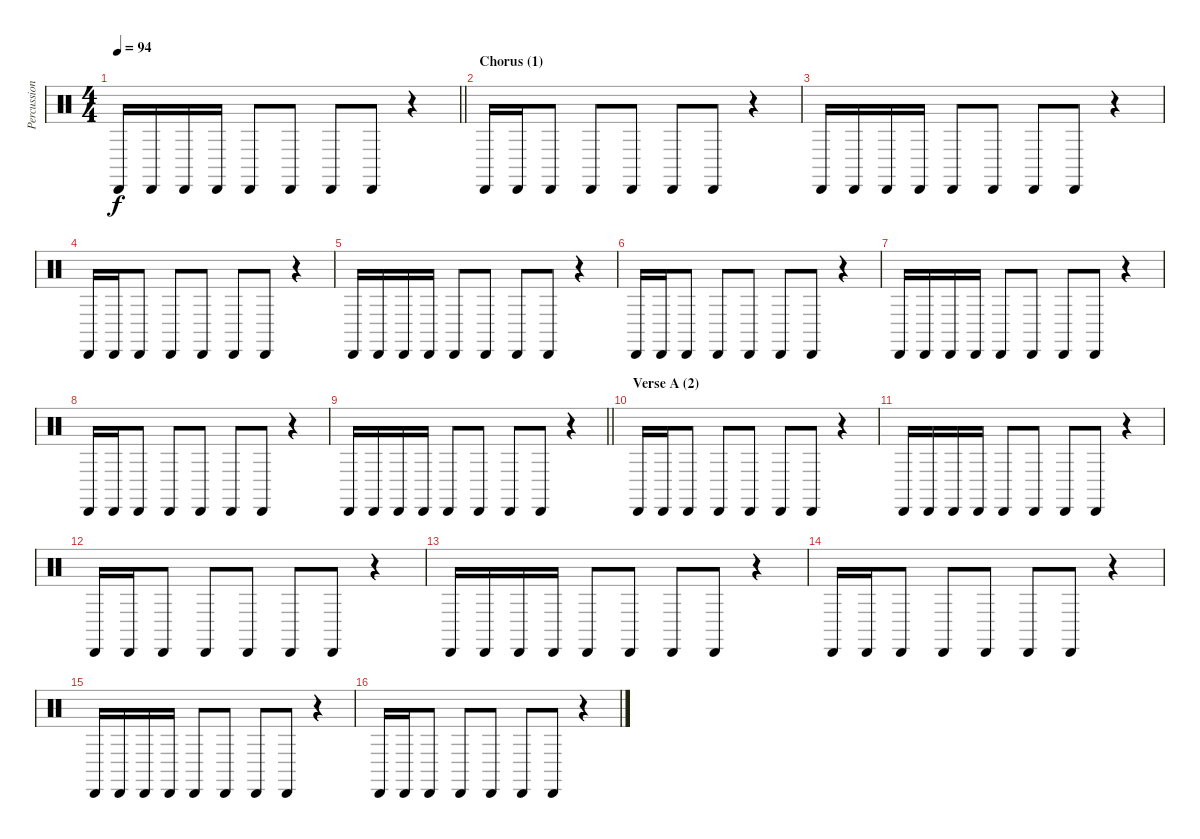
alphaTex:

\track ("Percussion" "Percussion") {instrument percussion}
\staff {score}
\articulation defaults
\ts (4 4)
\tempo 94
\clef neutral
\barLineRight lightlight
\ks aminor "Cabasa (hit)".16{dy f} "Cabasa (hit)".16 "Cabasa (hit)".16 "Cabasa (hit)".16 "Cabasa (hit)".8 "Cabasa (hit)".8 "Cabasa (hit)".8 "Cabasa (hit)".8
r.4 |
\section ("" "Chorus (1)")
"Cabasa (hit)".16 "Cabasa (hit)".16 "Cabasa (hit)".8 "Cabasa (hit)".8 "Cabasa (hit)".8 "Cabasa (hit)".8 "Cabasa (hit)".8 r.4 |
"Cabasa (hit)".16 "Cabasa (hit)".16 "Cabasa (hit)".16 "Cabasa (hit)".16 "Cabasa (hit)".8 "Cabasa (hit)".8 "Cabasa (hit)".8 "Cabasa (hit)".8 r.4 |
"Cabasa (hit)".16 "Cabasa (hit)".16 "Cabasa (hit)".8 "Cabasa (hit)".8 "Cabasa (hit)".8 "Cabasa (hit)".8 "Cabasa (hit)".8 r.4 |
"Cabasa (hit)".16 "Cabasa (hit)".16 "Cabasa (hit)".16 "Cabasa (hit)".16 "Cabasa (hit)".8 "Cabasa (hit)".8 "Cabasa (hit)".8 "Cabasa (hit)".8 r.4 |
"Cabasa (hit)".16 "Cabasa (hit)".16 "Cabasa (hit)".8 "Cabasa (hit)".8 "Cabasa (hit)".8 "Cabasa (hit)".8 "Cabasa (hit)".8 r.4 |
"Cabasa (hit)".16 "Cabasa (hit)".16 "Cabasa (hit)".16 "Cabasa (hit)".16 "Cabasa (hit)".8 "Cabasa (hit)".8 "Cabasa (hit)".8 "Cabasa (hit)".8 r.4 |
"Cabasa (hit)".16 "Cabasa (hit)".16 "Cabasa (hit)".8 "Cabasa (hit)".8 "Cabasa (hit)".8 "Cabasa (hit)".8 "Cabasa (hit)".8 r.4 |
\barLineRight lightlight "Cabasa (hit)".16 "Cabasa (hit)".16 "Cabasa (hit)".16 "Cabasa (hit)".16 "Cabasa (hit)".8 "Cabasa (hit)".8 "Cabasa (hit)".8 "Cabasa (hit)".8
r.4 |
\section ("" "Verse A (2)")
"Cabasa (hit)".16 "Cabasa (hit)".16 "Cabasa (hit)".8 "Cabasa (hit)".8 "Cabasa (hit)".8 "Cabasa (hit)".8 "Cabasa (hit)".8 r.4 |
"Cabasa (hit)".16 "Cabasa (hit)".16 "Cabasa (hit)".16 "Cabasa (hit)".16 "Cabasa (hit)".8 "Cabasa (hit)".8 "Cabasa (hit)".8 "Cabasa (hit)".8 r.4 |
"Cabasa (hit)".16 "Cabasa (hit)".16 "Cabasa (hit)".8 "Cabasa (hit)".8 "Cabasa (hit)".8 "Cabasa (hit)".8 "Cabasa (hit)".8 r.4 |
"Cabasa (hit)".16 "Cabasa (hit)".16 "Cabasa (hit)".16 "Cabasa (hit)".16 "Cabasa (hit)".8 "Cabasa (hit)".8 "Cabasa (hit)".8 "Cabasa (hit)".8 r.4 |
"Cabasa (hit)".16 "Cabasa (hit)".16 "Cabasa (hit)".8 "Cabasa (hit)".8 "Cabasa (hit)".8 "Cabasa (hit)".8 "Cabasa (hit)".8 r.4 |
"Cabasa (hit)".16 "Cabasa (hit)".16 "Cabasa (hit)".16 "Cabasa (hit)".16 "Cabasa (hit)".8 "Cabasa (hit)".8 "Cabasa (hit)".8 "Cabasa (hit)".8 r.4 |
"Cabasa (hit)".16 "Cabasa (hit)".16 "Cabasa (hit)".8 "Cabasa (hit)".8 "Cabasa (hit)".8 "Cabasa (hit)".8 "Cabasa (hit)".8 r.4
